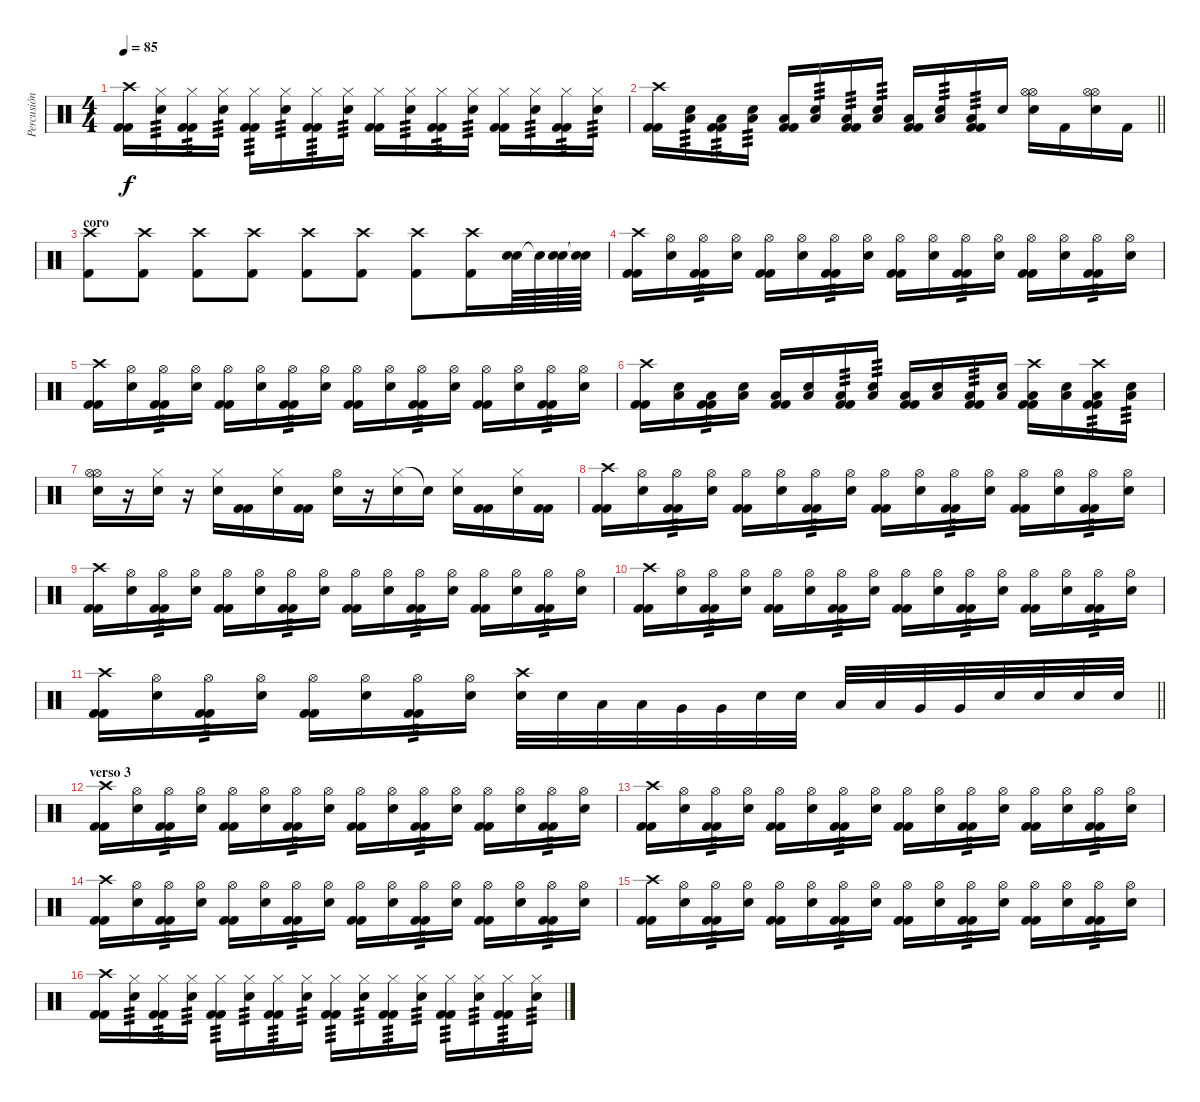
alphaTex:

\track ("Percusión" "Percusión") {instrument percussion}
\staff {score}
\articulation defaults
\ts (4 4)
\tempo 85
\clef neutral
\ks c
("Crash high (hit)" "Kick (hit) 2" "Kick (hit) 2").16{dy f volume 14} ("Hi-Hat (closed)" "Electric Snare (hit)").16{tp 3} ("Hi-Hat (closed)" "Kick (hit) 2" "Kick (hit) 2").16{tp 3} ("Hi-Hat (closed)" "Electric Snare (hit)").16{tp 3} ("Hi-Hat (closed)" "Kick (hit) 2" "Kick (hit) 2").16{tp 3} ("Hi-Hat (closed)" "Electric Snare (hit)").16{tp 3} ("Hi-Hat (closed)" "Kick (hit) 2" "Kick (hit) 2").16{tp 3} ("Hi-Hat (closed)" "Electric Snare (hit)").16{tp 3} ("Hi-Hat (closed)" "Kick (hit) 2" "Kick (hit) 2").16 ("Hi-Hat (closed)" "Electric Snare (hit)").16{tp 3} ("Hi-Hat (closed)" "Kick (hit) 2" "Kick (hit) 2").16{tp 3} ("Hi-Hat (closed)" "Electric Snare (hit)").16{tp 3} ("Hi-Hat (closed)" "Kick (hit) 2" "Kick (hit) 2").16 ("Hi-Hat (closed)" "Electric Snare (hit)").16{tp 3} ("Hi-Hat (closed)" "Kick (hit) 2" "Kick (hit) 2").16{tp 3} ("Hi-Hat (closed)" "Electric Snare (hit)").16{tp 3} |
\barLineRight lightlight
("Crash high (hit)" "Kick (hit) 2" "Kick (hit) 2").16 ("Low Floor Tom (hit)" "Electric Snare (hit)").16{tp 3} ("Low Floor Tom (hit)" "Kick (hit) 2" "Kick (hit) 2").16{tp 3} ("Low Floor Tom (hit)" "Electric Snare (hit)").16{tp 3} ("Low Floor Tom (hit)" "Kick (hit) 2" "Kick (hit) 2").16 ("Low Floor Tom (hit)" "Electric Snare (hit)").16{tp 3} ("Low Floor Tom (hit)" "Kick (hit) 2" "Kick (hit) 2").16{tp 3} ("Low Floor Tom (hit)" "Electric Snare (hit)").16{tp 3} ("Low Floor Tom (hit)" "Kick (hit) 2" "Kick (hit) 2").16 ("Low Floor Tom (hit)" "Electric Snare (hit)").16{tp 3} ("Low Floor Tom (hit)" "Kick (hit) 2" "Kick (hit) 2").16{tp 3} "Electric Snare (hit)".16 ("Hi-Hat (open)" "Hi-Hat (open)" "Electric Snare (hit)").16 "Kick (hit) 2".16 ("Hi-Hat (open)" "Hi-Hat (open)" "Electric Snare (hit)").16 "Kick (hit) 2".16 |
\section ("" "coro")
("Crash high (hit)" "Kick (hit) 2").8 ("Crash high (hit)" "Kick (hit) 2").8 ("Crash high (hit)" "Kick (hit) 2").8 ("Crash high (hit)" "Kick (hit) 2").8 ("Crash high (hit)" "Kick (hit) 2").8 ("Crash high (hit)" "Kick (hit) 2").8 ("Crash high (hit)" "Kick (hit) 2").8 ("Crash high (hit)" "Kick (hit) 2").16 ("Electric Snare (hit)" "Electric Snare (hit)").64 "Electric Snare (hit)"{t}.64 ("Electric Snare (hit)" "Electric Snare (hit)").64 ("Snare (hit)"{t} "Snare (hit)"{t}).64 |
("Crash high (hit)" "Kick (hit) 2" "Kick (hit) 2").16{volume 14} ("Hi-Hat (open)" "Electric Snare (hit)").16 ("Hi-Hat (open)" "Kick (hit) 2" "Kick (hit) 2").16{tp 3} ("Hi-Hat (open)" "Electric Snare (hit)").16 ("Hi-Hat (open)" "Kick (hit) 2" "Kick (hit) 2").16 ("Hi-Hat (open)" "Electric Snare (hit)").16 ("Hi-Hat (open)" "Kick (hit) 2" "Kick (hit) 2").16{tp 3} ("Hi-Hat (open)" "Electric Snare (hit)").16 ("Hi-Hat (open)" "Kick (hit) 2" "Kick (hit) 2").16 ("Hi-Hat (open)" "Electric Snare (hit)").16 ("Hi-Hat (open)" "Kick (hit) 2" "Kick (hit) 2").16{tp 3} ("Hi-Hat (open)" "Electric Snare (hit)").16 ("Hi-Hat (open)" "Kick (hit) 2" "Kick (hit) 2").16 ("Hi-Hat (open)" "Electric Snare (hit)").16 ("Hi-Hat (open)" "Kick (hit) 2" "Kick (hit) 2").16{tp 3} ("Hi-Hat (open)" "Electric Snare (hit)").16 |
("Crash high (hit)" "Kick (hit) 2" "Kick (hit) 2").16 ("Hi-Hat (open)" "Electric Snare (hit)").16 ("Hi-Hat (open)" "Kick (hit) 2" "Kick (hit) 2").16{tp 3} ("Hi-Hat (open)" "Electric Snare (hit)").16 ("Hi-Hat (open)" "Kick (hit) 2" "Kick (hit) 2").16 ("Hi-Hat (open)" "Electric Snare (hit)").16 ("Hi-Hat (open)" "Kick (hit) 2" "Kick (hit) 2").16{tp 3} ("Hi-Hat (open)" "Electric Snare (hit)").16 ("Hi-Hat (open)" "Kick (hit) 2" "Kick (hit) 2").16 ("Hi-Hat (open)" "Electric Snare (hit)").16 ("Hi-Hat (open)" "Kick (hit) 2" "Kick (hit) 2").16{tp 3} ("Hi-Hat (open)" "Electric Snare (hit)").16 ("Hi-Hat (open)" "Kick (hit) 2" "Kick (hit) 2").16 ("Hi-Hat (open)" "Electric Snare (hit)").16 ("Hi-Hat (open)" "Kick (hit) 2" "Kick (hit) 2").16{tp 3} ("Hi-Hat (open)" "Electric Snare (hit)").16 |
("Crash high (hit)" "Kick (hit) 2" "Kick (hit) 2").16{volume 14} ("Low Floor Tom (hit)" "Electric Snare (hit)").16 ("Low Floor Tom (hit)" "Kick (hit) 2" "Kick (hit) 2").16{tp 3} ("Low Floor Tom (hit)" "Electric Snare (hit)").16 ("Low Floor Tom (hit)" "Kick (hit) 2" "Kick (hit) 2").16 ("Low Floor Tom (hit)" "Electric Snare (hit)").16 ("Low Floor Tom (hit)" "Kick (hit) 2" "Kick (hit) 2").16{tp 3} ("Low Floor Tom (hit)" "Electric Snare (hit)").16{tp 3} ("Low Floor Tom (hit)" "Kick (hit) 2" "Kick (hit) 2").16 ("Low Floor Tom (hit)" "Electric Snare (hit)").16 ("Low Floor Tom (hit)" "Kick (hit) 2" "Kick (hit) 2").16{tp 3} ("Low Floor Tom (hit)" "Electric Snare (hit)").16 ("Crash high (hit)" "Low Floor Tom (hit)" "Kick (hit) 2" "Kick (hit) 2").16 ("Low Floor Tom (hit)" "Electric Snare (hit)").16 ("Crash high (hit)" "Low Floor Tom (hit)" "Kick (hit) 2" "Kick (hit) 2").16{tp 3} ("Low Floor Tom (hit)" "Electric Snare (hit)").16{tp 3} |
("Hi-Hat (open)" "Hi-Hat (open)" "Electric Snare (hit)").16 r.16 ("Hi-Hat (closed)" "Electric Snare (hit)").16 r.16 ("Hi-Hat (closed)" "Electric Snare (hit)").16 ("Kick (hit) 2" "Kick (hit) 2").16 ("Hi-Hat (closed)" "Electric Snare (hit)").16 ("Kick (hit) 2" "Kick (hit) 2").16 ("Hi-Hat (open)" "Electric Snare (hit)").16 r.16 ("Hi-Hat (closed)" "Electric Snare (hit)").16 "Snare (hit)"{t}.16 ("Hi-Hat (closed)" "Electric Snare (hit)").16 ("Kick (hit) 2" "Kick (hit) 2").16 ("Hi-Hat (closed)" "Electric Snare (hit)").16 ("Kick (hit) 2" "Kick (hit) 2").16 |
("Crash high (hit)" "Kick (hit) 2" "Kick (hit) 2").16{volume 14} ("Hi-Hat (open)" "Electric Snare (hit)").16 ("Hi-Hat (open)" "Kick (hit) 2" "Kick (hit) 2").16{tp 3} ("Hi-Hat (open)" "Electric Snare (hit)").16 ("Hi-Hat (open)" "Kick (hit) 2" "Kick (hit) 2").16 ("Hi-Hat (open)" "Electric Snare (hit)").16 ("Hi-Hat (open)" "Kick (hit) 2" "Kick (hit) 2").16{tp 3} ("Hi-Hat (open)" "Electric Snare (hit)").16 ("Hi-Hat (open)" "Kick (hit) 2" "Kick (hit) 2").16 ("Hi-Hat (open)" "Electric Snare (hit)").16 ("Hi-Hat (open)" "Kick (hit) 2" "Kick (hit) 2").16{tp 3} ("Hi-Hat (open)" "Electric Snare (hit)").16 ("Hi-Hat (open)" "Kick (hit) 2" "Kick (hit) 2").16 ("Hi-Hat (open)" "Electric Snare (hit)").16 ("Hi-Hat (open)" "Kick (hit) 2" "Kick (hit) 2").16{tp 3} ("Hi-Hat (open)" "Electric Snare (hit)").16 |
("Crash high (hit)" "Kick (hit) 2" "Kick (hit) 2").16 ("Hi-Hat (open)" "Electric Snare (hit)").16 ("Hi-Hat (open)" "Kick (hit) 2" "Kick (hit) 2").16{tp 3} ("Hi-Hat (open)" "Electric Snare (hit)").16 ("Hi-Hat (open)" "Kick (hit) 2" "Kick (hit) 2").16 ("Hi-Hat (open)" "Electric Snare (hit)").16 ("Hi-Hat (open)" "Kick (hit) 2" "Kick (hit) 2").16{tp 3} ("Hi-Hat (open)" "Electric Snare (hit)").16 ("Hi-Hat (open)" "Kick (hit) 2" "Kick (hit) 2").16 ("Hi-Hat (open)" "Electric Snare (hit)").16 ("Hi-Hat (open)" "Kick (hit) 2" "Kick (hit) 2").16{tp 3} ("Hi-Hat (open)" "Electric Snare (hit)").16 ("Hi-Hat (open)" "Kick (hit) 2" "Kick (hit) 2").16 ("Hi-Hat (open)" "Electric Snare (hit)").16 ("Hi-Hat (open)" "Kick (hit) 2" "Kick (hit) 2").16{tp 3} ("Hi-Hat (open)" "Electric Snare (hit)").16 |
("Crash high (hit)" "Kick (hit) 2" "Kick (hit) 2").16{volume 14} ("Hi-Hat (open)" "Electric Snare (hit)").16 ("Hi-Hat (open)" "Kick (hit) 2" "Kick (hit) 2").16{tp 3} ("Hi-Hat (open)" "Electric Snare (hit)").16 ("Hi-Hat (open)" "Kick (hit) 2" "Kick (hit) 2").16 ("Hi-Hat (open)" "Electric Snare (hit)").16 ("Hi-Hat (open)" "Kick (hit) 2" "Kick (hit) 2").16{tp 3} ("Hi-Hat (open)" "Electric Snare (hit)").16 ("Hi-Hat (open)" "Kick (hit) 2" "Kick (hit) 2").16 ("Hi-Hat (open)" "Electric Snare (hit)").16 ("Hi-Hat (open)" "Kick (hit) 2" "Kick (hit) 2").16{tp 3} ("Hi-Hat (open)" "Electric Snare (hit)").16 ("Hi-Hat (open)" "Kick (hit) 2" "Kick (hit) 2").16 ("Hi-Hat (open)" "Electric Snare (hit)").16 ("Hi-Hat (open)" "Kick (hit) 2" "Kick (hit) 2").16{tp 3} ("Hi-Hat (open)" "Electric Snare (hit)").16 |
\barLineRight lightlight
("Crash high (hit)" "Kick (hit) 2" "Kick (hit) 2").16 ("Hi-Hat (open)" "Electric Snare (hit)").16 ("Hi-Hat (open)" "Kick (hit) 2" "Kick (hit) 2").16{tp 3} ("Hi-Hat (open)" "Electric Snare (hit)").16 ("Hi-Hat (open)" "Kick (hit) 2" "Kick (hit) 2").16 ("Hi-Hat (open)" "Electric Snare (hit)").16 ("Hi-Hat (open)" "Kick (hit) 2" "Kick (hit) 2").16{tp 3} ("Hi-Hat (open)" "Electric Snare (hit)").16 ("Crash high (hit)" "Electric Snare (hit)").32 "Electric Snare (hit)".32 "Low Tom (hit)".32 "Low Tom (hit)".32 "Very Low Tom (hit)".32 "Very Low Tom (hit)".32 "Electric Snare (hit)".32 "Electric Snare (hit)".32 "Low Tom (hit)".32 "Low Tom (hit)".32 "Very Low Tom (hit)".32 "Very Low Tom (hit)".32 "Electric Snare (hit)".32 "Electric Snare (hit)".32 "Electric Snare (hit)".32 "Electric Snare (hit)".32 |
\section ("" "verso 3")
("Crash high (hit)" "Kick (hit) 2" "Kick (hit) 2").16{volume 14} ("Hi-Hat (open)" "Electric Snare (hit)").16 ("Hi-Hat (open)" "Kick (hit) 2" "Kick (hit) 2").16{tp 3} ("Hi-Hat (open)" "Electric Snare (hit)").16 ("Hi-Hat (open)" "Kick (hit) 2" "Kick (hit) 2").16 ("Hi-Hat (open)" "Electric Snare (hit)").16 ("Hi-Hat (open)" "Kick (hit) 2" "Kick (hit) 2").16{tp 3} ("Hi-Hat (open)" "Electric Snare (hit)").16 ("Hi-Hat (open)" "Kick (hit) 2" "Kick (hit) 2").16 ("Hi-Hat (open)" "Electric Snare (hit)").16 ("Hi-Hat (open)" "Kick (hit) 2" "Kick (hit) 2").16{tp 3} ("Hi-Hat (open)" "Electric Snare (hit)").16 ("Hi-Hat (open)" "Kick (hit) 2" "Kick (hit) 2").16 ("Hi-Hat (open)" "Electric Snare (hit)").16 ("Hi-Hat (open)" "Kick (hit) 2" "Kick (hit) 2").16{tp 3} ("Hi-Hat (open)" "Electric Snare (hit)").16 |
("Crash high (hit)" "Kick (hit) 2" "Kick (hit) 2").16 ("Hi-Hat (open)" "Electric Snare (hit)").16 ("Hi-Hat (open)" "Kick (hit) 2" "Kick (hit) 2").16{tp 3} ("Hi-Hat (open)" "Electric Snare (hit)").16 ("Hi-Hat (open)" "Kick (hit) 2" "Kick (hit) 2").16 ("Hi-Hat (open)" "Electric Snare (hit)").16 ("Hi-Hat (open)" "Kick (hit) 2" "Kick (hit) 2").16{tp 3} ("Hi-Hat (open)" "Electric Snare (hit)").16 ("Hi-Hat (open)" "Kick (hit) 2" "Kick (hit) 2").16 ("Hi-Hat (open)" "Electric Snare (hit)").16 ("Hi-Hat (open)" "Kick (hit) 2" "Kick (hit) 2").16{tp 3} ("Hi-Hat (open)" "Electric Snare (hit)").16 ("Hi-Hat (open)" "Kick (hit) 2" "Kick (hit) 2").16 ("Hi-Hat (open)" "Electric Snare (hit)").16 ("Hi-Hat (open)" "Kick (hit) 2" "Kick (hit) 2").16{tp 3} ("Hi-Hat (open)" "Electric Snare (hit)").16 |
("Crash high (hit)" "Kick (hit) 2" "Kick (hit) 2").16{volume 14} ("Hi-Hat (open)" "Electric Snare (hit)").16 ("Hi-Hat (open)" "Kick (hit) 2" "Kick (hit) 2").16{tp 3} ("Hi-Hat (open)" "Electric Snare (hit)").16 ("Hi-Hat (open)" "Kick (hit) 2" "Kick (hit) 2").16 ("Hi-Hat (open)" "Electric Snare (hit)").16 ("Hi-Hat (open)" "Kick (hit) 2" "Kick (hit) 2").16{tp 3} ("Hi-Hat (open)" "Electric Snare (hit)").16 ("Hi-Hat (open)" "Kick (hit) 2" "Kick (hit) 2").16 ("Hi-Hat (open)" "Electric Snare (hit)").16 ("Hi-Hat (open)" "Kick (hit) 2" "Kick (hit) 2").16{tp 3} ("Hi-Hat (open)" "Electric Snare (hit)").16 ("Hi-Hat (open)" "Kick (hit) 2" "Kick (hit) 2").16 ("Hi-Hat (open)" "Electric Snare (hit)").16 ("Hi-Hat (open)" "Kick (hit) 2" "Kick (hit) 2").16{tp 3} ("Hi-Hat (open)" "Electric Snare (hit)").16 |
("Crash high (hit)" "Kick (hit) 2" "Kick (hit) 2").16 ("Hi-Hat (open)" "Electric Snare (hit)").16 ("Hi-Hat (open)" "Kick (hit) 2" "Kick (hit) 2").16{tp 3} ("Hi-Hat (open)" "Electric Snare (hit)").16 ("Hi-Hat (open)" "Kick (hit) 2" "Kick (hit) 2").16 ("Hi-Hat (open)" "Electric Snare (hit)").16 ("Hi-Hat (open)" "Kick (hit) 2" "Kick (hit) 2").16{tp 3} ("Hi-Hat (open)" "Electric Snare (hit)").16 ("Hi-Hat (open)" "Kick (hit) 2" "Kick (hit) 2").16 ("Hi-Hat (open)" "Electric Snare (hit)").16 ("Hi-Hat (open)" "Kick (hit) 2" "Kick (hit) 2").16{tp 3} ("Hi-Hat (open)" "Electric Snare (hit)").16 ("Hi-Hat (open)" "Kick (hit) 2" "Kick (hit) 2").16 ("Hi-Hat (open)" "Electric Snare (hit)").16 ("Hi-Hat (open)" "Kick (hit) 2" "Kick (hit) 2").16{tp 3} ("Hi-Hat (open)" "Electric Snare (hit)").16 |
("Crash high (hit)" "Kick (hit) 2" "Kick (hit) 2").16{volume 14} ("Hi-Hat (closed)" "Electric Snare (hit)").16{tp 3} ("Hi-Hat (closed)" "Kick (hit) 2" "Kick (hit) 2").16{tp 3} ("Hi-Hat (closed)" "Electric Snare (hit)").16{tp 3} ("Hi-Hat (closed)" "Kick (hit) 2" "Kick (hit) 2").16{tp 3} ("Hi-Hat (closed)" "Electric Snare (hit)").16{tp 3} ("Hi-Hat (closed)" "Kick (hit) 2" "Kick (hit) 2").16{tp 3} ("Hi-Hat (closed)" "Electric Snare (hit)").16{tp 3} ("Hi-Hat (closed)" "Kick (hit) 2" "Kick (hit) 2").16{tp 3} ("Hi-Hat (closed)" "Electric Snare (hit)").16{tp 3} ("Hi-Hat (closed)" "Kick (hit) 2" "Kick (hit) 2").16{tp 3} ("Hi-Hat (closed)" "Electric Snare (hit)").16{tp 3} ("Hi-Hat (closed)" "Kick (hit) 2" "Kick (hit) 2").16{tp 3} ("Hi-Hat (closed)" "Electric Snare (hit)").16{tp 3} ("Hi-Hat (closed)" "Kick (hit) 2" "Kick (hit) 2").16{tp 3} ("Hi-Hat (closed)" "Electric Snare (hit)").16{tp 3}
